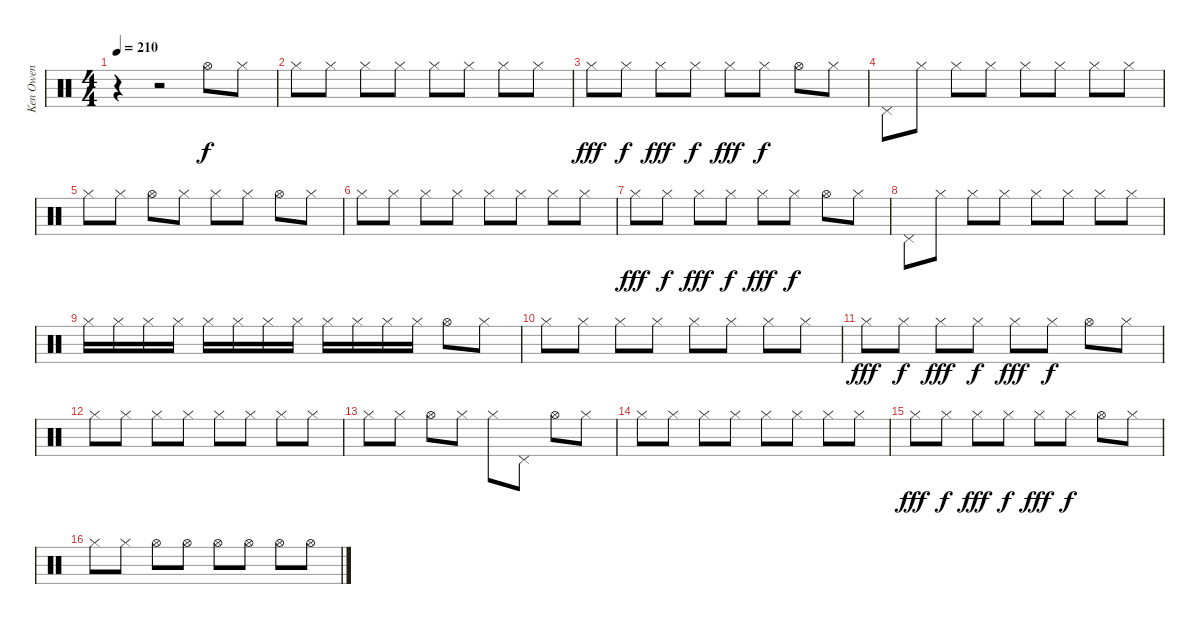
\track ("Ken Owen" "Ken Owen") {instrument percussion}
\staff {score}
\articulation defaults
\ts (4 4)
\tempo 210
\clef neutral
\ks c
r.4{dy f} r.2 "Hi-Hat (open)".8 "Hi-Hat (closed)".8 |
"Hi-Hat (closed)".8 "Hi-Hat (closed)".8 "Hi-Hat (closed)".8 "Hi-Hat (closed)".8 "Hi-Hat (closed)".8 "Hi-Hat (closed)".8 "Hi-Hat (closed)".8 "Hi-Hat (closed)".8 |
"Hi-Hat (closed)".8{dy fff} "Hi-Hat (closed)".8{dy f} "Hi-Hat (closed)".8{dy fff} "Hi-Hat (closed)".8{dy f} "Hi-Hat (closed)".8{dy fff} "Hi-Hat (closed)".8{dy f} "Hi-Hat (open)".8 "Hi-Hat (closed)".8 |
"Pedal Hi-Hat (hit)".8 "Hi-Hat (closed)".8 "Hi-Hat (closed)".8 "Hi-Hat (closed)".8 "Hi-Hat (closed)".8 "Hi-Hat (closed)".8 "Hi-Hat (closed)".8 "Hi-Hat (closed)".8 |
"Hi-Hat (closed)".8 "Hi-Hat (closed)".8 "Hi-Hat (open)".8 "Hi-Hat (closed)".8 "Hi-Hat (closed)".8 "Hi-Hat (closed)".8 "Hi-Hat (open)".8 "Hi-Hat (closed)".8 |
"Hi-Hat (closed)".8 "Hi-Hat (closed)".8 "Hi-Hat (closed)".8 "Hi-Hat (closed)".8 "Hi-Hat (closed)".8 "Hi-Hat (closed)".8 "Hi-Hat (closed)".8 "Hi-Hat (closed)".8 |
"Hi-Hat (closed)".8{dy fff} "Hi-Hat (closed)".8{dy f} "Hi-Hat (closed)".8{dy fff} "Hi-Hat (closed)".8{dy f} "Hi-Hat (closed)".8{dy fff} "Hi-Hat (closed)".8{dy f} "Hi-Hat (open)".8 "Hi-Hat (closed)".8 |
"Pedal Hi-Hat (hit)".8 "Hi-Hat (closed)".8 "Hi-Hat (closed)".8 "Hi-Hat (closed)".8 "Hi-Hat (closed)".8 "Hi-Hat (closed)".8 "Hi-Hat (closed)".8 "Hi-Hat (closed)".8 |
"Hi-Hat (closed)".16 "Hi-Hat (closed)".16 "Hi-Hat (closed)".16 "Hi-Hat (closed)".16 "Hi-Hat (closed)".16 "Hi-Hat (closed)".16 "Hi-Hat (closed)".16 "Hi-Hat (closed)".16 "Hi-Hat (closed)".16 "Hi-Hat (closed)".16 "Hi-Hat (closed)".16 "Hi-Hat (closed)".16 "Hi-Hat (open)".8 "Hi-Hat (closed)".8 |
"Hi-Hat (closed)".8 "Hi-Hat (closed)".8 "Hi-Hat (closed)".8 "Hi-Hat (closed)".8 "Hi-Hat (closed)".8 "Hi-Hat (closed)".8 "Hi-Hat (closed)".8 "Hi-Hat (closed)".8 |
"Hi-Hat (closed)".8{dy fff} "Hi-Hat (closed)".8{dy f} "Hi-Hat (closed)".8{dy fff} "Hi-Hat (closed)".8{dy f} "Hi-Hat (closed)".8{dy fff} "Hi-Hat (closed)".8{dy f} "Hi-Hat (open)".8 "Hi-Hat (closed)".8 |
"Hi-Hat (closed)".8 "Hi-Hat (closed)".8 "Hi-Hat (closed)".8 "Hi-Hat (closed)".8 "Hi-Hat (closed)".8 "Hi-Hat (closed)".8 "Hi-Hat (closed)".8 "Hi-Hat (closed)".8 |
"Hi-Hat (closed)".8 "Hi-Hat (closed)".8 "Hi-Hat (open)".8 "Hi-Hat (closed)".8 "Hi-Hat (closed)".8 "Pedal Hi-Hat (hit)".8 "Hi-Hat (open)".8 "Hi-Hat (closed)".8 |
"Hi-Hat (closed)".8 "Hi-Hat (closed)".8 "Hi-Hat (closed)".8 "Hi-Hat (closed)".8 "Hi-Hat (closed)".8 "Hi-Hat (closed)".8 "Hi-Hat (closed)".8 "Hi-Hat (closed)".8 |
"Hi-Hat (closed)".8{dy fff} "Hi-Hat (closed)".8{dy f} "Hi-Hat (closed)".8{dy fff} "Hi-Hat (closed)".8{dy f} "Hi-Hat (closed)".8{dy fff} "Hi-Hat (closed)".8{dy f} "Hi-Hat (open)".8 "Hi-Hat (closed)".8 |
"Hi-Hat (closed)".8 "Hi-Hat (closed)".8 "Hi-Hat (open)".8 "Hi-Hat (open)".8 "Hi-Hat (open)".8 "Hi-Hat (open)".8 "Hi-Hat (open)".8 "Hi-Hat (open)".8
